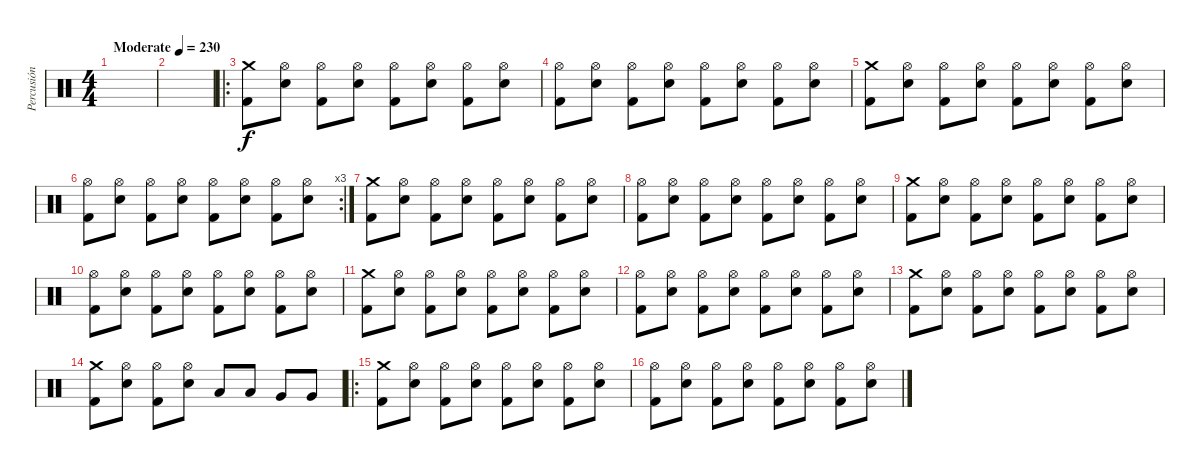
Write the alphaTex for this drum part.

\track ("Percusión" "Percusión") {instrument percussion}
\staff {score}
\articulation defaults
\ts (4 4)
\tempo (230 "Moderate")
\clef neutral
\ks c
|
|
\ro
("Crash medium (hit)" "Kick (hit) 2").8 ("Hi-Hat (open)" "Electric Snare (hit)").8 ("Hi-Hat (open)" "Kick (hit) 2").8 ("Hi-Hat (open)" "Electric Snare (hit)").8 ("Hi-Hat (open)" "Kick (hit) 2").8 ("Hi-Hat (open)" "Electric Snare (hit)").8 ("Hi-Hat (open)" "Kick (hit) 2").8 ("Hi-Hat (open)" "Electric Snare (hit)").8 |
("Hi-Hat (open)" "Kick (hit) 2").8 ("Hi-Hat (open)" "Electric Snare (hit)").8 ("Hi-Hat (open)" "Kick (hit) 2").8 ("Hi-Hat (open)" "Electric Snare (hit)").8 ("Hi-Hat (open)" "Kick (hit) 2").8 ("Hi-Hat (open)" "Electric Snare (hit)").8 ("Hi-Hat (open)" "Kick (hit) 2").8 ("Hi-Hat (open)" "Electric Snare (hit)").8 |
("Crash medium (hit)" "Kick (hit) 2").8 ("Hi-Hat (open)" "Electric Snare (hit)").8 ("Hi-Hat (open)" "Kick (hit) 2").8 ("Hi-Hat (open)" "Electric Snare (hit)").8 ("Hi-Hat (open)" "Kick (hit) 2").8 ("Hi-Hat (open)" "Electric Snare (hit)").8 ("Hi-Hat (open)" "Kick (hit) 2").8 ("Hi-Hat (open)" "Electric Snare (hit)").8 |
\rc 3
("Hi-Hat (open)" "Kick (hit) 2").8 ("Hi-Hat (open)" "Electric Snare (hit)").8 ("Hi-Hat (open)" "Kick (hit) 2").8 ("Hi-Hat (open)" "Electric Snare (hit)").8 ("Hi-Hat (open)" "Kick (hit) 2").8 ("Hi-Hat (open)" "Electric Snare (hit)").8 ("Hi-Hat (open)" "Kick (hit) 2").8 ("Hi-Hat (open)" "Electric Snare (hit)").8 |
("Crash medium (hit)" "Kick (hit) 2").8 ("Hi-Hat (open)" "Electric Snare (hit)").8 ("Hi-Hat (open)" "Kick (hit) 2").8 ("Hi-Hat (open)" "Electric Snare (hit)").8 ("Hi-Hat (open)" "Kick (hit) 2").8 ("Hi-Hat (open)" "Electric Snare (hit)").8 ("Hi-Hat (open)" "Kick (hit) 2").8 ("Hi-Hat (open)" "Electric Snare (hit)").8 |
("Hi-Hat (open)" "Kick (hit) 2").8 ("Hi-Hat (open)" "Electric Snare (hit)").8 ("Hi-Hat (open)" "Kick (hit) 2").8 ("Hi-Hat (open)" "Electric Snare (hit)").8 ("Hi-Hat (open)" "Kick (hit) 2").8 ("Hi-Hat (open)" "Electric Snare (hit)").8 ("Hi-Hat (open)" "Kick (hit) 2").8 ("Hi-Hat (open)" "Electric Snare (hit)").8 |
("Crash medium (hit)" "Kick (hit) 2").8 ("Hi-Hat (open)" "Electric Snare (hit)").8 ("Hi-Hat (open)" "Kick (hit) 2").8 ("Hi-Hat (open)" "Electric Snare (hit)").8 ("Hi-Hat (open)" "Kick (hit) 2").8 ("Hi-Hat (open)" "Electric Snare (hit)").8 ("Hi-Hat (open)" "Kick (hit) 2").8 ("Hi-Hat (open)" "Electric Snare (hit)").8 |
("Hi-Hat (open)" "Kick (hit) 2").8 ("Hi-Hat (open)" "Electric Snare (hit)").8 ("Hi-Hat (open)" "Kick (hit) 2").8 ("Hi-Hat (open)" "Electric Snare (hit)").8 ("Hi-Hat (open)" "Kick (hit) 2").8 ("Hi-Hat (open)" "Electric Snare (hit)").8 ("Hi-Hat (open)" "Kick (hit) 2").8 ("Hi-Hat (open)" "Electric Snare (hit)").8 |
("Crash medium (hit)" "Kick (hit) 2").8 ("Hi-Hat (open)" "Electric Snare (hit)").8 ("Hi-Hat (open)" "Kick (hit) 2").8 ("Hi-Hat (open)" "Electric Snare (hit)").8 ("Hi-Hat (open)" "Kick (hit) 2").8 ("Hi-Hat (open)" "Electric Snare (hit)").8 ("Hi-Hat (open)" "Kick (hit) 2").8 ("Hi-Hat (open)" "Electric Snare (hit)").8 |
("Hi-Hat (open)" "Kick (hit) 2").8 ("Hi-Hat (open)" "Electric Snare (hit)").8 ("Hi-Hat (open)" "Kick (hit) 2").8 ("Hi-Hat (open)" "Electric Snare (hit)").8 ("Hi-Hat (open)" "Kick (hit) 2").8 ("Hi-Hat (open)" "Electric Snare (hit)").8 ("Hi-Hat (open)" "Kick (hit) 2").8 ("Hi-Hat (open)" "Electric Snare (hit)").8 |
("Crash medium (hit)" "Kick (hit) 2").8 ("Hi-Hat (open)" "Electric Snare (hit)").8 ("Hi-Hat (open)" "Kick (hit) 2").8 ("Hi-Hat (open)" "Electric Snare (hit)").8 ("Hi-Hat (open)" "Kick (hit) 2").8 ("Hi-Hat (open)" "Electric Snare (hit)").8 ("Hi-Hat (open)" "Kick (hit) 2").8 ("Hi-Hat (open)" "Electric Snare (hit)").8 |
("Crash medium (hit)" "Kick (hit) 2").8 ("Hi-Hat (open)" "Electric Snare (hit)").8 ("Hi-Hat (open)" "Kick (hit) 2").8 ("Hi-Hat (open)" "Electric Snare (hit)").8 "Low Tom (hit)".8 "Low Tom (hit)".8 "Very Low Tom (hit)".8 "Very Low Tom (hit)".8 |
\ro
("Crash medium (hit)" "Kick (hit) 2").8 ("Hi-Hat (open)" "Electric Snare (hit)").8 ("Hi-Hat (open)" "Kick (hit) 2").8 ("Hi-Hat (open)" "Electric Snare (hit)").8 ("Hi-Hat (open)" "Kick (hit) 2").8 ("Hi-Hat (open)" "Electric Snare (hit)").8 ("Hi-Hat (open)" "Kick (hit) 2").8 ("Hi-Hat (open)" "Electric Snare (hit)").8 |
("Hi-Hat (open)" "Kick (hit) 2").8 ("Hi-Hat (open)" "Electric Snare (hit)").8 ("Hi-Hat (open)" "Kick (hit) 2").8 ("Hi-Hat (open)" "Electric Snare (hit)").8 ("Hi-Hat (open)" "Kick (hit) 2").8 ("Hi-Hat (open)" "Electric Snare (hit)").8 ("Hi-Hat (open)" "Kick (hit) 2").8 ("Hi-Hat (open)" "Electric Snare (hit)").8
